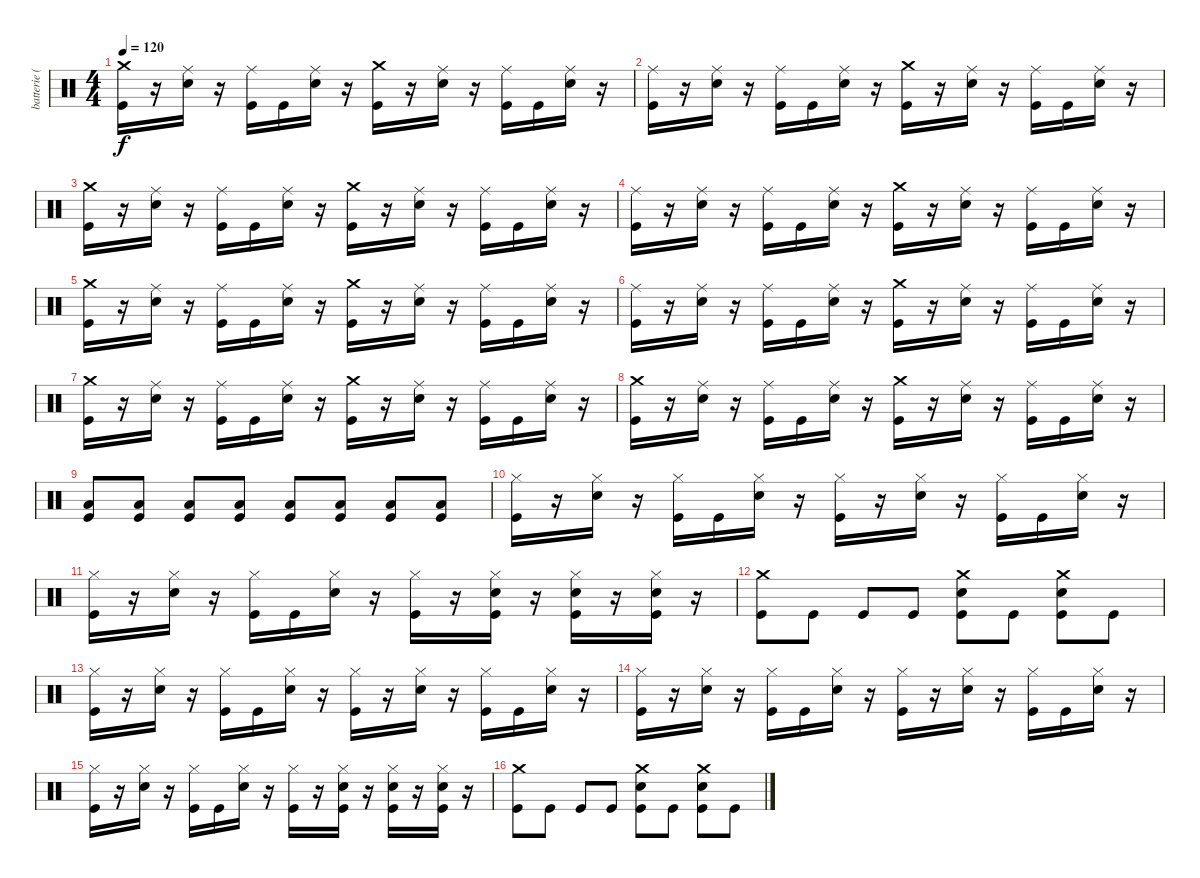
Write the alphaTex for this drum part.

\track ("batterie ( Yureesh ) " "batterie (") {instrument percussion}
\staff {score}
\articulation defaults
\ts (4 4)
\tempo 120
\clef neutral
\ks c
("Crash medium (hit)" "Kick (hit)").16{dy f} r.16 ("Ride (middle)" "Snare (hit) 2").16 r.16 ("Ride (middle)" "Kick (hit)").16 "Kick (hit)".16 ("Ride (middle)" "Snare (hit) 2").16 r.16 ("Crash medium (hit)" "Kick (hit)").16 r.16 ("Ride (middle)" "Snare (hit) 2").16 r.16 ("Ride (middle)" "Kick (hit)").16 "Kick (hit)".16 ("Ride (middle)" "Snare (hit) 2").16 r.16 |
("Ride (middle)" "Kick (hit)").16 r.16 ("Ride (middle)" "Snare (hit) 2").16 r.16 ("Ride (middle)" "Kick (hit)").16 "Kick (hit)".16 ("Ride (middle)" "Snare (hit) 2").16 r.16 ("Crash medium (hit)" "Kick (hit)").16 r.16 ("Ride (middle)" "Snare (hit) 2").16 r.16 ("Ride (middle)" "Kick (hit)").16 "Kick (hit)".16 ("Ride (middle)" "Snare (hit) 2").16 r.16 |
("Crash medium (hit)" "Kick (hit)").16 r.16 ("Ride (middle)" "Snare (hit) 2").16 r.16 ("Ride (middle)" "Kick (hit)").16 "Kick (hit)".16 ("Ride (middle)" "Snare (hit) 2").16 r.16 ("Crash medium (hit)" "Kick (hit)").16 r.16 ("Ride (middle)" "Snare (hit) 2").16 r.16 ("Ride (middle)" "Kick (hit)").16 "Kick (hit)".16 ("Ride (middle)" "Snare (hit) 2").16 r.16 |
("Ride (middle)" "Kick (hit)").16 r.16 ("Ride (middle)" "Snare (hit) 2").16 r.16 ("Ride (middle)" "Kick (hit)").16 "Kick (hit)".16 ("Ride (middle)" "Snare (hit) 2").16 r.16 ("Crash medium (hit)" "Kick (hit)").16 r.16 ("Ride (middle)" "Snare (hit) 2").16 r.16 ("Ride (middle)" "Kick (hit)").16 "Kick (hit)".16 ("Ride (middle)" "Snare (hit) 2").16 r.16 |
("Crash medium (hit)" "Kick (hit)").16 r.16 ("Ride (middle)" "Snare (hit) 2").16 r.16 ("Ride (middle)" "Kick (hit)").16 "Kick (hit)".16 ("Ride (middle)" "Snare (hit) 2").16 r.16 ("Crash medium (hit)" "Kick (hit)").16 r.16 ("Ride (middle)" "Snare (hit) 2").16 r.16 ("Ride (middle)" "Kick (hit)").16 "Kick (hit)".16 ("Ride (middle)" "Snare (hit) 2").16 r.16 |
("Ride (middle)" "Kick (hit)").16 r.16 ("Ride (middle)" "Snare (hit) 2").16 r.16 ("Ride (middle)" "Kick (hit)").16 "Kick (hit)".16 ("Ride (middle)" "Snare (hit) 2").16 r.16 ("Crash medium (hit)" "Kick (hit)").16 r.16 ("Ride (middle)" "Snare (hit) 2").16 r.16 ("Ride (middle)" "Kick (hit)").16 "Kick (hit)".16 ("Ride (middle)" "Snare (hit) 2").16 r.16 |
("Crash medium (hit)" "Kick (hit)").16 r.16 ("Ride (middle)" "Snare (hit) 2").16 r.16 ("Ride (middle)" "Kick (hit)").16 "Kick (hit)".16 ("Ride (middle)" "Snare (hit) 2").16 r.16 ("Crash medium (hit)" "Kick (hit)").16 r.16 ("Ride (middle)" "Snare (hit) 2").16 r.16 ("Ride (middle)" "Kick (hit)").16 "Kick (hit)".16 ("Ride (middle)" "Snare (hit) 2").16 r.16 |
("Crash medium (hit)" "Kick (hit)").16 r.16 ("Ride (middle)" "Snare (hit) 2").16 r.16 ("Ride (middle)" "Kick (hit)").16 "Kick (hit)".16 ("Ride (middle)" "Snare (hit) 2").16 r.16 ("Crash medium (hit)" "Kick (hit)").16 r.16 ("Ride (middle)" "Snare (hit) 2").16 r.16 ("Ride (middle)" "Kick (hit)").16 "Kick (hit)".16 ("Ride (middle)" "Snare (hit) 2").16 r.16 |
("Low Floor Tom (hit)" "Kick (hit)").8 ("Low Floor Tom (hit)" "Kick (hit)").8 ("Low Floor Tom (hit)" "Kick (hit)").8 ("Low Floor Tom (hit)" "Kick (hit)").8 ("Low Floor Tom (hit)" "Kick (hit)").8 ("Low Floor Tom (hit)" "Kick (hit)").8 ("Low Floor Tom (hit)" "Kick (hit)").8 ("Low Floor Tom (hit)" "Kick (hit)").8 |
("Hi-Hat (closed)" "Kick (hit)").16 r.16 ("Hi-Hat (closed)" "Snare (hit) 2").16 r.16 ("Hi-Hat (closed)" "Kick (hit)").16 "Kick (hit)".16 ("Hi-Hat (closed)" "Snare (hit) 2").16 r.16 ("Hi-Hat (closed)" "Kick (hit)").16 r.16 ("Hi-Hat (closed)" "Snare (hit) 2").16 r.16 ("Hi-Hat (closed)" "Kick (hit)").16 "Kick (hit)".16 ("Hi-Hat (closed)" "Snare (hit) 2").16 r.16 |
("Hi-Hat (closed)" "Kick (hit)").16 r.16 ("Hi-Hat (closed)" "Snare (hit) 2").16 r.16 ("Hi-Hat (closed)" "Kick (hit)").16 "Kick (hit)".16 ("Hi-Hat (closed)" "Snare (hit) 2").16 r.16 ("Hi-Hat (closed)" "Kick (hit)").16 r.16 ("Hi-Hat (closed)" "Snare (hit) 2" "Kick (hit)").16 r.16 ("Hi-Hat (closed)" "Snare (hit) 2" "Kick (hit)").16 r.16 ("Hi-Hat (closed)" "Snare (hit) 2" "Kick (hit)").16 r.16 |
("Crash medium (hit)" "Kick (hit)").8 "Kick (hit)".8 "Kick (hit)".8 "Kick (hit)".8 ("Crash medium (hit)" "Snare (hit) 2" "Kick (hit)").8 "Kick (hit)".8 ("Crash medium (hit)" "Snare (hit) 2" "Kick (hit)").8 "Kick (hit)".8 |
("Hi-Hat (closed)" "Kick (hit)").16 r.16 ("Hi-Hat (closed)" "Snare (hit) 2").16 r.16 ("Hi-Hat (closed)" "Kick (hit)").16 "Kick (hit)".16 ("Hi-Hat (closed)" "Snare (hit) 2").16 r.16 ("Hi-Hat (closed)" "Kick (hit)").16 r.16 ("Hi-Hat (closed)" "Snare (hit) 2").16 r.16 ("Hi-Hat (closed)" "Kick (hit)").16 "Kick (hit)".16 ("Hi-Hat (closed)" "Snare (hit) 2").16 r.16 |
("Hi-Hat (closed)" "Kick (hit)").16 r.16 ("Hi-Hat (closed)" "Snare (hit) 2").16 r.16 ("Hi-Hat (closed)" "Kick (hit)").16 "Kick (hit)".16 ("Hi-Hat (closed)" "Snare (hit) 2").16 r.16 ("Hi-Hat (closed)" "Kick (hit)").16 r.16 ("Hi-Hat (closed)" "Snare (hit) 2").16 r.16 ("Hi-Hat (closed)" "Kick (hit)").16 "Kick (hit)".16 ("Hi-Hat (closed)" "Snare (hit) 2").16 r.16 |
("Hi-Hat (closed)" "Kick (hit)").16 r.16 ("Hi-Hat (closed)" "Snare (hit) 2").16 r.16 ("Hi-Hat (closed)" "Kick (hit)").16 "Kick (hit)".16 ("Hi-Hat (closed)" "Snare (hit) 2").16 r.16 ("Hi-Hat (closed)" "Kick (hit)").16 r.16 ("Hi-Hat (closed)" "Snare (hit) 2" "Kick (hit)").16 r.16 ("Hi-Hat (closed)" "Snare (hit) 2" "Kick (hit)").16 r.16 ("Hi-Hat (closed)" "Snare (hit) 2" "Kick (hit)").16 r.16 |
("Crash medium (hit)" "Kick (hit)").8 "Kick (hit)".8 "Kick (hit)".8 "Kick (hit)".8 ("Crash medium (hit)" "Snare (hit) 2" "Kick (hit)").8 "Kick (hit)".8 ("Crash medium (hit)" "Snare (hit) 2" "Kick (hit)").8 "Kick (hit)".8
